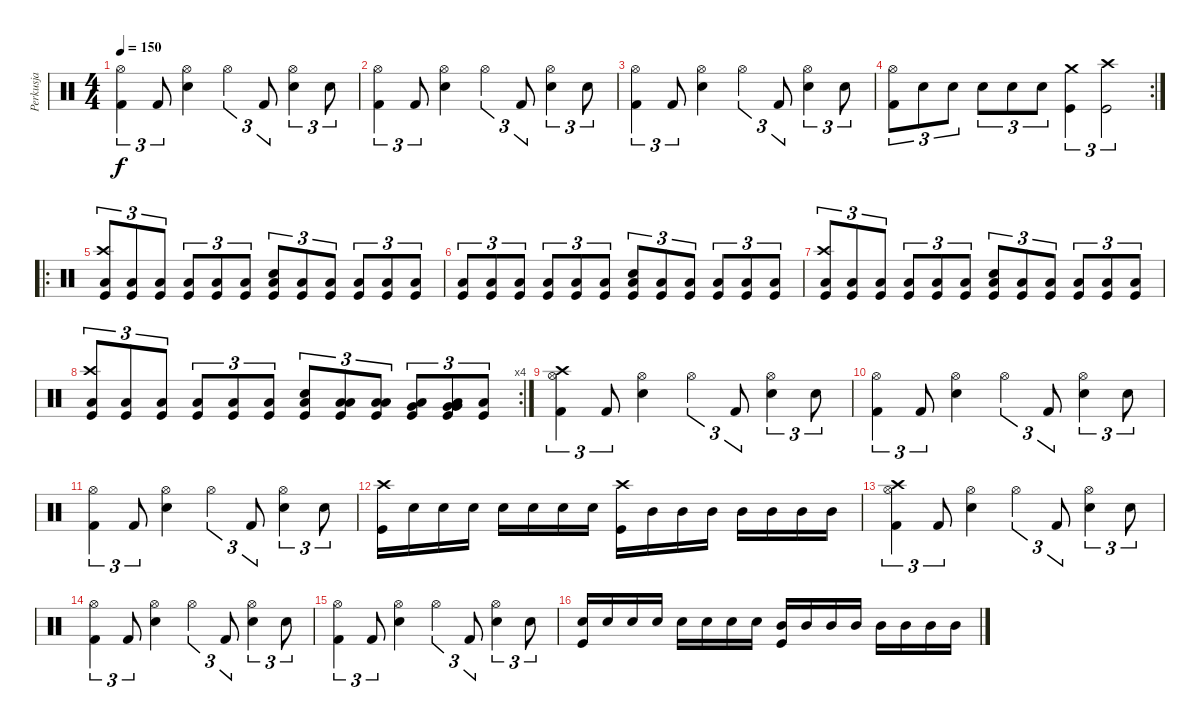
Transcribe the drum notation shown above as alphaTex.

\track ("Perkusja" "Perkusja") {instrument percussion}
\staff {score}
\articulation defaults
\ts (4 4)
\tempo 150
\clef neutral
\ks c
("Kick (hit) 2" "Hi-Hat (open)").4{tu (3 2) dy f} "Kick (hit) 2".8{tu (3 2)} ("Snare (hit) 2" "Hi-Hat (open)").4 "Hi-Hat (open)".4{tu (3 2)} "Kick (hit) 2".8{tu (3 2)} ("Snare (hit) 2" "Hi-Hat (open)").4{tu (3 2)} "Snare (hit) 2".8{tu (3 2)} |
("Kick (hit) 2" "Hi-Hat (open)").4{tu (3 2)} "Kick (hit) 2".8{tu (3 2)} ("Snare (hit) 2" "Hi-Hat (open)").4 "Hi-Hat (open)".4{tu (3 2)} "Kick (hit) 2".8{tu (3 2)} ("Snare (hit) 2" "Hi-Hat (open)").4{tu (3 2)} "Snare (hit) 2".8{tu (3 2)} |
("Kick (hit) 2" "Hi-Hat (open)").4{tu (3 2)} "Kick (hit) 2".8{tu (3 2)} ("Snare (hit) 2" "Hi-Hat (open)").4 "Hi-Hat (open)".4{tu (3 2)} "Kick (hit) 2".8{tu (3 2)} ("Snare (hit) 2" "Hi-Hat (open)").4{tu (3 2)} "Snare (hit) 2".8{tu (3 2)} |
\rc 2
("Kick (hit) 2" "Hi-Hat (open)").8{tu (3 2)} "Snare (hit) 2".8{tu (3 2)} "Snare (hit) 2".8{tu (3 2)} "Snare (hit) 2".8{tu (3 2)} "Snare (hit) 2".8{tu (3 2)} "Snare (hit) 2".8{tu (3 2)} ("Kick (hit)" "Crash medium (hit)").4{tu (3 2)} ("Kick (hit)" "Crash high (hit)").2{tu (3 2)} |
\ro
("Kick (hit)" "Crash high (hit)" "Low Floor Tom (hit)").8{tu (3 2)} ("Kick (hit)" "Low Floor Tom (hit)").8{tu (3 2)} ("Kick (hit)" "Low Floor Tom (hit)").8{tu (3 2)} ("Kick (hit)" "Low Floor Tom (hit)").8{tu (3 2)} ("Kick (hit)" "Low Floor Tom (hit)").8{tu (3 2)} ("Kick (hit)" "Low Floor Tom (hit)").8{tu (3 2)} ("Kick (hit)" "Low Floor Tom (hit)" "Snare (hit) 2").8{tu (3 2)} ("Kick (hit)" "Low Floor Tom (hit)").8{tu (3 2)} ("Kick (hit)" "Low Floor Tom (hit)").8{tu (3 2)} ("Kick (hit)" "Low Floor Tom (hit)").8{tu (3 2)} ("Kick (hit)" "Low Floor Tom (hit)").8{tu (3 2)} ("Kick (hit)" "Low Floor Tom (hit)").8{tu (3 2)} |
("Kick (hit)" "Low Floor Tom (hit)").8{tu (3 2)} ("Kick (hit)" "Low Floor Tom (hit)").8{tu (3 2)} ("Kick (hit)" "Low Floor Tom (hit)").8{tu (3 2)} ("Kick (hit)" "Low Floor Tom (hit)").8{tu (3 2)} ("Kick (hit)" "Low Floor Tom (hit)").8{tu (3 2)} ("Kick (hit)" "Low Floor Tom (hit)").8{tu (3 2)} ("Kick (hit)" "Low Floor Tom (hit)" "Snare (hit) 2").8{tu (3 2)} ("Kick (hit)" "Low Floor Tom (hit)").8{tu (3 2)} ("Kick (hit)" "Low Floor Tom (hit)").8{tu (3 2)} ("Kick (hit)" "Low Floor Tom (hit)").8{tu (3 2)} ("Kick (hit)" "Low Floor Tom (hit)").8{tu (3 2)} ("Kick (hit)" "Low Floor Tom (hit)").8{tu (3 2)} |
("Kick (hit)" "Crash high (hit)" "Low Floor Tom (hit)").8{tu (3 2)} ("Kick (hit)" "Low Floor Tom (hit)").8{tu (3 2)} ("Kick (hit)" "Low Floor Tom (hit)").8{tu (3 2)} ("Kick (hit)" "Low Floor Tom (hit)").8{tu (3 2)} ("Kick (hit)" "Low Floor Tom (hit)").8{tu (3 2)} ("Kick (hit)" "Low Floor Tom (hit)").8{tu (3 2)} ("Kick (hit)" "Low Floor Tom (hit)" "Snare (hit) 2").8{tu (3 2)} ("Kick (hit)" "Low Floor Tom (hit)").8{tu (3 2)} ("Kick (hit)" "Low Floor Tom (hit)").8{tu (3 2)} ("Kick (hit)" "Low Floor Tom (hit)").8{tu (3 2)} ("Kick (hit)" "Low Floor Tom (hit)").8{tu (3 2)} ("Kick (hit)" "Low Floor Tom (hit)").8{tu (3 2)} |
\rc 4
("Kick (hit)" "Crash high (hit)" "Low Floor Tom (hit)").8{tu (3 2)} ("Kick (hit)" "Low Floor Tom (hit)").8{tu (3 2)} ("Kick (hit)" "Low Floor Tom (hit)").8{tu (3 2)} ("Kick (hit)" "Low Floor Tom (hit)").8{tu (3 2)} ("Kick (hit)" "Low Floor Tom (hit)").8{tu (3 2)} ("Kick (hit)" "Low Floor Tom (hit)").8{tu (3 2)} ("Kick (hit)" "Low Floor Tom (hit)" "Snare (hit) 2").8{tu (3 2)} ("Kick (hit)" "Low Floor Tom (hit)" "Low Tom (hit)").8{tu (3 2)} ("Kick (hit)" "Low Floor Tom (hit)" "Low Tom (hit)").8{tu (3 2)} ("Kick (hit)" "Low Floor Tom (hit)" "Very Low Tom (hit)").8{tu (3 2)} ("Kick (hit)" "Low Floor Tom (hit)" "Very Low Tom (hit)" "Very Low Tom (hit)").8{tu (3 2)} ("Kick (hit)" "Low Floor Tom (hit)").8{tu (3 2)} |
("Kick (hit) 2" "Hi-Hat (open)" "Crash high (hit)").4{tu (3 2)} "Kick (hit) 2".8{tu (3 2)} ("Snare (hit) 2" "Hi-Hat (open)").4 "Hi-Hat (open)".4{tu (3 2)} "Kick (hit) 2".8{tu (3 2)} ("Snare (hit) 2" "Hi-Hat (open)").4{tu (3 2)} "Snare (hit) 2".8{tu (3 2)} |
("Kick (hit) 2" "Hi-Hat (open)").4{tu (3 2)} "Kick (hit) 2".8{tu (3 2)} ("Snare (hit) 2" "Hi-Hat (open)").4 "Hi-Hat (open)".4{tu (3 2)} "Kick (hit) 2".8{tu (3 2)} ("Snare (hit) 2" "Hi-Hat (open)").4{tu (3 2)} "Snare (hit) 2".8{tu (3 2)} |
("Kick (hit) 2" "Hi-Hat (open)").4{tu (3 2)} "Kick (hit) 2".8{tu (3 2)} ("Snare (hit) 2" "Hi-Hat (open)").4 "Hi-Hat (open)".4{tu (3 2)} "Kick (hit) 2".8{tu (3 2)} ("Snare (hit) 2" "Hi-Hat (open)").4{tu (3 2)} "Snare (hit) 2".8{tu (3 2)} |
("Kick (hit)" "Crash high (hit)").16 "Snare (hit) 2".16 "Snare (hit) 2".16 "Snare (hit) 2".16 "Snare (hit) 2".16 "Snare (hit) 2".16 "Snare (hit) 2".16 "Snare (hit) 2".16 ("Kick (hit)" "Crash high (hit)").16 "Mid Tom (hit)".16 "Mid Tom (hit)".16 "Mid Tom (hit)".16 "Mid Tom (hit)".16 "Mid Tom (hit)".16 "Mid Tom (hit)".16 "Mid Tom (hit)".16 |
("Kick (hit) 2" "Hi-Hat (open)" "Crash high (hit)").4{tu (3 2)} "Kick (hit) 2".8{tu (3 2)} ("Snare (hit) 2" "Hi-Hat (open)").4 "Hi-Hat (open)".4{tu (3 2)} "Kick (hit) 2".8{tu (3 2)} ("Snare (hit) 2" "Hi-Hat (open)").4{tu (3 2)} "Snare (hit) 2".8{tu (3 2)} |
("Kick (hit) 2" "Hi-Hat (open)").4{tu (3 2)} "Kick (hit) 2".8{tu (3 2)} ("Snare (hit) 2" "Hi-Hat (open)").4 "Hi-Hat (open)".4{tu (3 2)} "Kick (hit) 2".8{tu (3 2)} ("Snare (hit) 2" "Hi-Hat (open)").4{tu (3 2)} "Snare (hit) 2".8{tu (3 2)} |
("Kick (hit) 2" "Hi-Hat (open)").4{tu (3 2)} "Kick (hit) 2".8{tu (3 2)} ("Snare (hit) 2" "Hi-Hat (open)").4 "Hi-Hat (open)".4{tu (3 2)} "Kick (hit) 2".8{tu (3 2)} ("Snare (hit) 2" "Hi-Hat (open)").4{tu (3 2)} "Snare (hit) 2".8{tu (3 2)} |
("Kick (hit)" "Snare (hit) 2").16 "Snare (hit) 2".16 "Snare (hit) 2".16 "Snare (hit) 2".16 "Snare (hit) 2".16 "Snare (hit) 2".16 "Snare (hit) 2".16 "Snare (hit) 2".16 ("Mid Tom (hit)" "Kick (hit)").16 "Mid Tom (hit)".16 "Mid Tom (hit)".16 "Mid Tom (hit)".16 "Mid Tom (hit)".16 "Mid Tom (hit)".16 "Mid Tom (hit)".16 "Mid Tom (hit)".16
